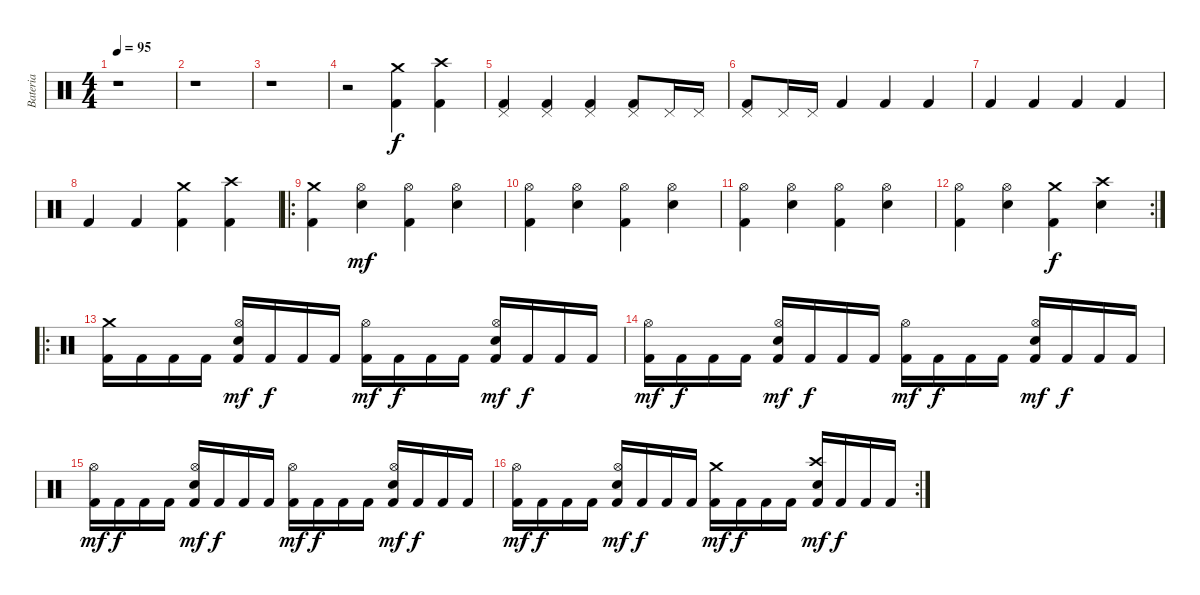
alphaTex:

\track ("Bateria" "Bateria") {instrument percussion}
\staff {score}
\articulation defaults
\ts (4 4)
\tempo 95
\tempo 135
\tempo 95
\clef neutral
\ks c
r.1{dy f} |
r.1 |
r.1 |
r.2 ("Crash medium (hit)" "Kick (hit) 2").4 ("Crash high (hit)" "Kick (hit) 2").4 |
("Pedal Hi-Hat (hit)" "Kick (hit) 2").4 ("Pedal Hi-Hat (hit)" "Kick (hit) 2").4 ("Pedal Hi-Hat (hit)" "Kick (hit) 2").4 ("Pedal Hi-Hat (hit)" "Kick (hit) 2").8 "Pedal Hi-Hat (hit)".16 "Pedal Hi-Hat (hit)".16 |
("Pedal Hi-Hat (hit)" "Kick (hit) 2").8 "Pedal Hi-Hat (hit)".16 "Pedal Hi-Hat (hit)".16 "Kick (hit) 2".4 "Kick (hit) 2".4 "Kick (hit) 2".4 |
"Kick (hit) 2".4 "Kick (hit) 2".4 "Kick (hit) 2".4 "Kick (hit) 2".4 |
"Kick (hit) 2".4 "Kick (hit) 2".4 ("Crash medium (hit)" "Kick (hit) 2").4 ("Crash high (hit)" "Kick (hit) 2").4 |
\ro
("Crash medium (hit)" "Kick (hit) 2").4 ("Hi-Hat (open)" "Snare (hit) 2").4{dy mf} ("Hi-Hat (open)" "Kick (hit) 2").4 ("Hi-Hat (open)" "Snare (hit) 2").4 |
("Hi-Hat (open)" "Kick (hit) 2").4 ("Hi-Hat (open)" "Snare (hit) 2").4 ("Hi-Hat (open)" "Kick (hit) 2").4 ("Hi-Hat (open)" "Snare (hit) 2").4 |
("Hi-Hat (open)" "Kick (hit) 2").4 ("Hi-Hat (open)" "Snare (hit) 2").4 ("Hi-Hat (open)" "Kick (hit) 2").4 ("Hi-Hat (open)" "Snare (hit) 2").4 |
\rc 2
("Hi-Hat (open)" "Kick (hit) 2").4 ("Hi-Hat (open)" "Snare (hit) 2").4 ("Crash medium (hit)" "Kick (hit) 2").4{dy f} ("Crash high (hit)" "Snare (hit) 2").4 |
\ro
("Crash medium (hit)" "Kick (hit) 2").16 "Kick (hit) 2".16 "Kick (hit) 2".16 "Kick (hit) 2".16 ("Hi-Hat (open)" "Snare (hit) 2" "Kick (hit) 2").16{dy mf} "Kick (hit) 2".16{dy f} "Kick (hit) 2".16 "Kick (hit) 2".16 ("Hi-Hat (open)" "Kick (hit) 2").16{dy mf} "Kick (hit) 2".16{dy f} "Kick (hit) 2".16 "Kick (hit) 2".16 ("Hi-Hat (open)" "Snare (hit) 2" "Kick (hit) 2").16{dy mf} "Kick (hit) 2".16{dy f} "Kick (hit) 2".16 "Kick (hit) 2".16 |
("Hi-Hat (open)" "Kick (hit) 2").16{dy mf} "Kick (hit) 2".16{dy f} "Kick (hit) 2".16 "Kick (hit) 2".16 ("Hi-Hat (open)" "Snare (hit) 2" "Kick (hit) 2").16{dy mf} "Kick (hit) 2".16{dy f} "Kick (hit) 2".16 "Kick (hit) 2".16 ("Hi-Hat (open)" "Kick (hit) 2").16{dy mf} "Kick (hit) 2".16{dy f} "Kick (hit) 2".16 "Kick (hit) 2".16 ("Hi-Hat (open)" "Snare (hit) 2" "Kick (hit) 2").16{dy mf} "Kick (hit) 2".16{dy f} "Kick (hit) 2".16 "Kick (hit) 2".16 |
("Hi-Hat (open)" "Kick (hit) 2").16{dy mf} "Kick (hit) 2".16{dy f} "Kick (hit) 2".16 "Kick (hit) 2".16 ("Hi-Hat (open)" "Snare (hit) 2" "Kick (hit) 2").16{dy mf} "Kick (hit) 2".16{dy f} "Kick (hit) 2".16 "Kick (hit) 2".16 ("Hi-Hat (open)" "Kick (hit) 2").16{dy mf} "Kick (hit) 2".16{dy f} "Kick (hit) 2".16 "Kick (hit) 2".16 ("Hi-Hat (open)" "Snare (hit) 2" "Kick (hit) 2").16{dy mf} "Kick (hit) 2".16{dy f} "Kick (hit) 2".16 "Kick (hit) 2".16 |
\rc 2
("Hi-Hat (open)" "Kick (hit) 2").16{dy mf} "Kick (hit) 2".16{dy f} "Kick (hit) 2".16 "Kick (hit) 2".16 ("Hi-Hat (open)" "Snare (hit) 2" "Kick (hit) 2").16{dy mf} "Kick (hit) 2".16{dy f} "Kick (hit) 2".16 "Kick (hit) 2".16 ("Crash medium (hit)" "Kick (hit) 2").16{dy mf} "Kick (hit) 2".16{dy f} "Kick (hit) 2".16 "Kick (hit) 2".16 ("Crash high (hit)" "Snare (hit) 2" "Kick (hit) 2").16{dy mf} "Kick (hit) 2".16{dy f} "Kick (hit) 2".16 "Kick (hit) 2".16
